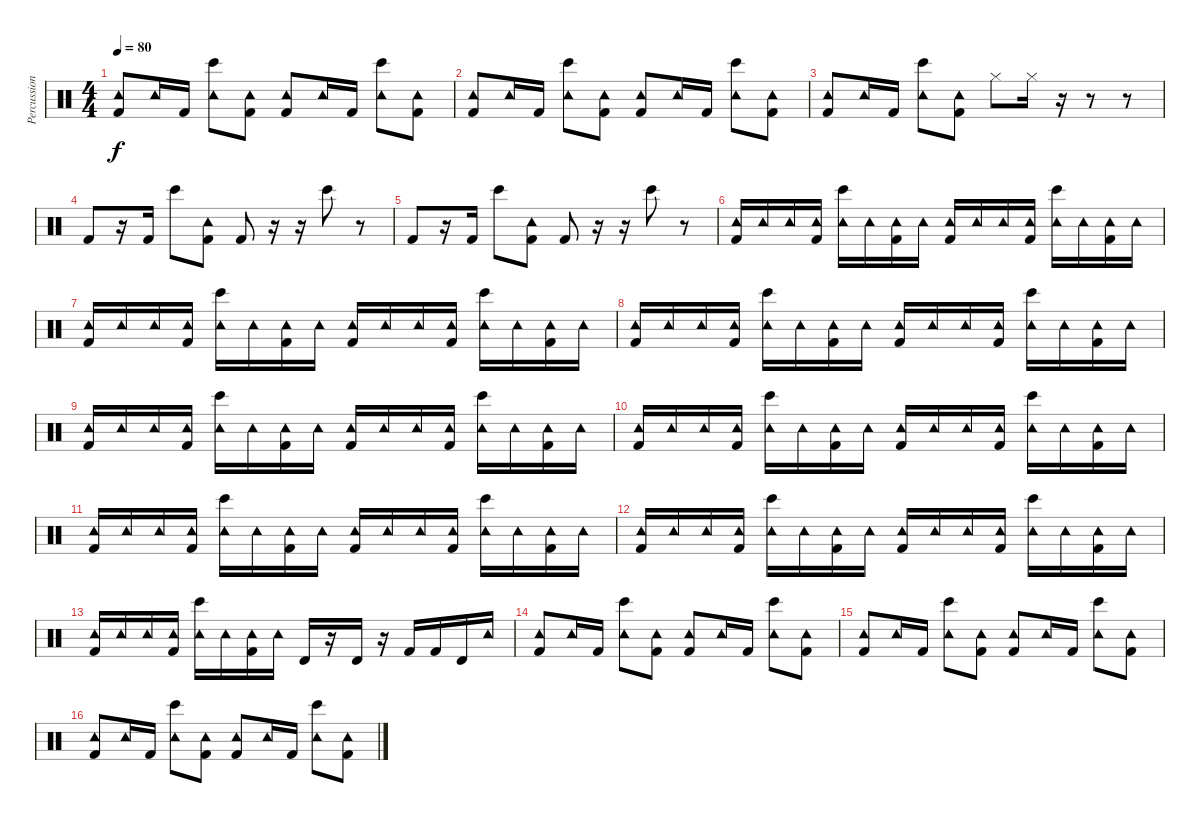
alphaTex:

\track ("Percussion" "Percussion") {instrument percussion}
\staff {score}
\articulation defaults
\ts (4 4)
\tempo 80
\clef neutral
\ks c
("Kick (hit) 2" "Tambourine (hit)").8{dy f} "Tambourine (hit)".16 "Kick (hit) 2".16 ("Bongo High (hit)" "Tambourine (hit)").8 ("Kick (hit) 2" "Tambourine (hit)").8 ("Kick (hit) 2" "Tambourine (hit)").8 "Tambourine (hit)".16 "Kick (hit) 2".16 ("Bongo High (hit)" "Tambourine (hit)").8 ("Kick (hit) 2" "Tambourine (hit)").8 |
("Kick (hit) 2" "Tambourine (hit)").8 "Tambourine (hit)".16 "Kick (hit) 2".16 ("Bongo High (hit)" "Tambourine (hit)").8 ("Kick (hit) 2" "Tambourine (hit)").8 ("Kick (hit) 2" "Tambourine (hit)").8 "Tambourine (hit)".16 "Kick (hit) 2".16 ("Bongo High (hit)" "Tambourine (hit)").8 ("Kick (hit) 2" "Tambourine (hit)").8 |
("Kick (hit) 2" "Tambourine (hit)").8 "Tambourine (hit)".16 "Kick (hit) 2".16 ("Bongo High (hit)" "Tambourine (hit)").8 ("Kick (hit) 2" "Tambourine (hit)").8 "Hi-Hat (closed)".8 "Hi-Hat (closed)".16 r.16 r.8 r.8 |
"Kick (hit) 2".8 r.16 "Kick (hit) 2".16 "Bongo High (hit)".8 ("Kick (hit) 2" "Tambourine (hit)").8 "Kick (hit) 2".8 r.16 r.16 "Bongo High (hit)".8 r.8 |
"Kick (hit) 2".8 r.16 "Kick (hit) 2".16 "Bongo High (hit)".8 ("Kick (hit) 2" "Tambourine (hit)").8 "Kick (hit) 2".8 r.16 r.16 "Bongo High (hit)".8 r.8 |
("Kick (hit) 2" "Tambourine (hit)").16 "Tambourine (hit)".16 "Tambourine (hit)".16 ("Kick (hit) 2" "Tambourine (hit)").16 ("Tambourine (hit)" "Bongo High (hit)").16 "Tambourine (hit)".16 ("Kick (hit) 2" "Tambourine (hit)").16 "Tambourine (hit)".16 ("Kick (hit) 2" "Tambourine (hit)").16 "Tambourine (hit)".16 "Tambourine (hit)".16 ("Kick (hit) 2" "Tambourine (hit)").16 ("Bongo High (hit)" "Tambourine (hit)").16 "Tambourine (hit)".16 ("Kick (hit) 2" "Tambourine (hit)").16 "Tambourine (hit)".16 |
("Kick (hit) 2" "Tambourine (hit)").16 "Tambourine (hit)".16 "Tambourine (hit)".16 ("Kick (hit) 2" "Tambourine (hit)").16 ("Tambourine (hit)" "Bongo High (hit)").16 "Tambourine (hit)".16 ("Kick (hit) 2" "Tambourine (hit)").16 "Tambourine (hit)".16 ("Kick (hit) 2" "Tambourine (hit)").16 "Tambourine (hit)".16 "Tambourine (hit)".16 ("Kick (hit) 2" "Tambourine (hit)").16 ("Bongo High (hit)" "Tambourine (hit)").16 "Tambourine (hit)".16 ("Kick (hit) 2" "Tambourine (hit)").16 "Tambourine (hit)".16 |
("Kick (hit) 2" "Tambourine (hit)").16 "Tambourine (hit)".16 "Tambourine (hit)".16 ("Kick (hit) 2" "Tambourine (hit)").16 ("Tambourine (hit)" "Bongo High (hit)").16 "Tambourine (hit)".16 ("Kick (hit) 2" "Tambourine (hit)").16 "Tambourine (hit)".16 ("Kick (hit) 2" "Tambourine (hit)").16 "Tambourine (hit)".16 "Tambourine (hit)".16 ("Kick (hit) 2" "Tambourine (hit)").16 ("Bongo High (hit)" "Tambourine (hit)").16 "Tambourine (hit)".16 ("Kick (hit) 2" "Tambourine (hit)").16 "Tambourine (hit)".16 |
("Kick (hit) 2" "Tambourine (hit)").16 "Tambourine (hit)".16 "Tambourine (hit)".16 ("Kick (hit) 2" "Tambourine (hit)").16 ("Tambourine (hit)" "Bongo High (hit)").16 "Tambourine (hit)".16 ("Kick (hit) 2" "Tambourine (hit)").16 "Tambourine (hit)".16 ("Kick (hit) 2" "Tambourine (hit)").16 "Tambourine (hit)".16 "Tambourine (hit)".16 ("Kick (hit) 2" "Tambourine (hit)").16 ("Bongo High (hit)" "Tambourine (hit)").16 "Tambourine (hit)".16 ("Kick (hit) 2" "Tambourine (hit)").16 "Tambourine (hit)".16 |
("Kick (hit) 2" "Tambourine (hit)").16 "Tambourine (hit)".16 "Tambourine (hit)".16 ("Kick (hit) 2" "Tambourine (hit)").16 ("Tambourine (hit)" "Bongo High (hit)").16 "Tambourine (hit)".16 ("Kick (hit) 2" "Tambourine (hit)").16 "Tambourine (hit)".16 ("Kick (hit) 2" "Tambourine (hit)").16 "Tambourine (hit)".16 "Tambourine (hit)".16 ("Kick (hit) 2" "Tambourine (hit)").16 ("Bongo High (hit)" "Tambourine (hit)").16 "Tambourine (hit)".16 ("Kick (hit) 2" "Tambourine (hit)").16 "Tambourine (hit)".16 |
("Kick (hit) 2" "Tambourine (hit)").16 "Tambourine (hit)".16 "Tambourine (hit)".16 ("Kick (hit) 2" "Tambourine (hit)").16 ("Tambourine (hit)" "Bongo High (hit)").16 "Tambourine (hit)".16 ("Kick (hit) 2" "Tambourine (hit)").16 "Tambourine (hit)".16 ("Kick (hit) 2" "Tambourine (hit)").16 "Tambourine (hit)".16 "Tambourine (hit)".16 ("Kick (hit) 2" "Tambourine (hit)").16 ("Bongo High (hit)" "Tambourine (hit)").16 "Tambourine (hit)".16 ("Kick (hit) 2" "Tambourine (hit)").16 "Tambourine (hit)".16 |
("Kick (hit) 2" "Tambourine (hit)").16 "Tambourine (hit)".16 "Tambourine (hit)".16 ("Kick (hit) 2" "Tambourine (hit)").16 ("Tambourine (hit)" "Bongo High (hit)").16 "Tambourine (hit)".16 ("Kick (hit) 2" "Tambourine (hit)").16 "Tambourine (hit)".16 ("Kick (hit) 2" "Tambourine (hit)").16 "Tambourine (hit)".16 "Tambourine (hit)".16 ("Kick (hit) 2" "Tambourine (hit)").16 ("Bongo High (hit)" "Tambourine (hit)").16 "Tambourine (hit)".16 ("Kick (hit) 2" "Tambourine (hit)").16 "Tambourine (hit)".16 |
("Kick (hit) 2" "Tambourine (hit)").16 "Tambourine (hit)".16 "Tambourine (hit)".16 ("Kick (hit) 2" "Tambourine (hit)").16 ("Tambourine (hit)" "Bongo High (hit)").16 "Tambourine (hit)".16 ("Kick (hit) 2" "Tambourine (hit)").16 "Tambourine (hit)".16 "Timbale high (hit)".16 r.16 "Timbale high (hit)".16 r.16 "Kick (hit) 2".16 "Kick (hit) 2".16 "Timbale high (hit)".16 "Tambourine (hit)".16 |
("Kick (hit) 2" "Tambourine (hit)").8 "Tambourine (hit)".16 "Kick (hit) 2".16 ("Bongo High (hit)" "Tambourine (hit)").8 ("Kick (hit) 2" "Tambourine (hit)").8 ("Kick (hit) 2" "Tambourine (hit)").8 "Tambourine (hit)".16 "Kick (hit) 2".16 ("Bongo High (hit)" "Tambourine (hit)").8 ("Kick (hit) 2" "Tambourine (hit)").8 |
("Kick (hit) 2" "Tambourine (hit)").8 "Tambourine (hit)".16 "Kick (hit) 2".16 ("Bongo High (hit)" "Tambourine (hit)").8 ("Kick (hit) 2" "Tambourine (hit)").8 ("Kick (hit) 2" "Tambourine (hit)").8 "Tambourine (hit)".16 "Kick (hit) 2".16 ("Bongo High (hit)" "Tambourine (hit)").8 ("Kick (hit) 2" "Tambourine (hit)").8 |
("Kick (hit) 2" "Tambourine (hit)").8 "Tambourine (hit)".16 "Kick (hit) 2".16 ("Bongo High (hit)" "Tambourine (hit)").8 ("Kick (hit) 2" "Tambourine (hit)").8 ("Kick (hit) 2" "Tambourine (hit)").8 "Tambourine (hit)".16 "Kick (hit) 2".16 ("Bongo High (hit)" "Tambourine (hit)").8 ("Kick (hit) 2" "Tambourine (hit)").8
